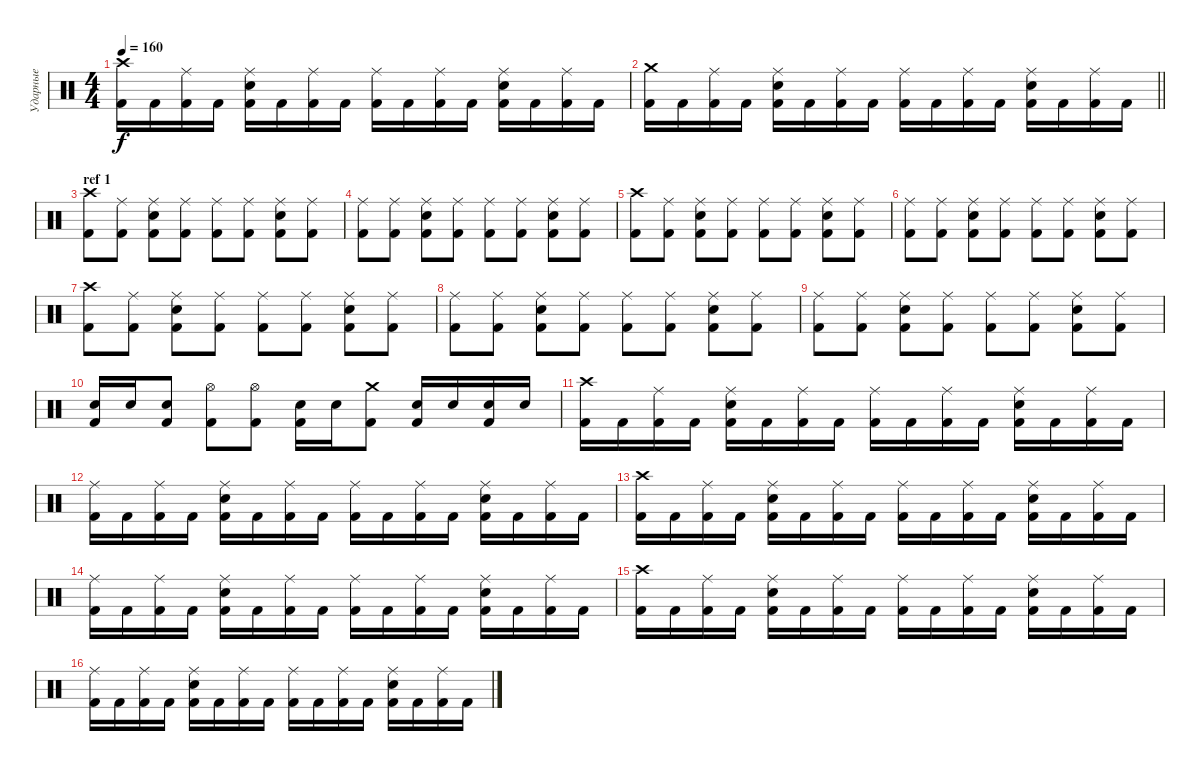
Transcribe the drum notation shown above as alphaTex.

\track ("Ударные" "Ударные") {instrument percussion}
\staff {score}
\articulation defaults
\ts (4 4)
\tempo 160
\clef neutral
\ks c
("Crash high (hit)" "Kick (hit) 2").16{dy f} "Kick (hit) 2".16 ("Ride (middle)" "Kick (hit) 2").16 "Kick (hit) 2".16 ("Ride (middle)" "Electric Snare (hit)" "Kick (hit) 2").16 "Kick (hit) 2".16 ("Ride (middle)" "Kick (hit) 2").16 "Kick (hit) 2".16 ("Ride (middle)" "Kick (hit) 2").16 "Kick (hit) 2".16 ("Ride (middle)" "Kick (hit) 2").16 "Kick (hit) 2".16 ("Ride (middle)" "Electric Snare (hit)" "Kick (hit) 2").16 "Kick (hit) 2".16 ("Ride (middle)" "Kick (hit) 2").16 "Kick (hit) 2".16 |
\barLineRight lightlight
("Crash medium (hit)" "Kick (hit) 2").16 "Kick (hit) 2".16 ("Ride (middle)" "Kick (hit) 2").16 "Kick (hit) 2".16 ("Ride (middle)" "Electric Snare (hit)" "Kick (hit) 2").16 "Kick (hit) 2".16 ("Ride (middle)" "Kick (hit) 2").16 "Kick (hit) 2".16 ("Ride (middle)" "Kick (hit) 2").16 "Kick (hit) 2".16 ("Ride (middle)" "Kick (hit) 2").16 "Kick (hit) 2".16 ("Ride (middle)" "Electric Snare (hit)" "Kick (hit) 2").16 "Kick (hit) 2".16 ("Ride (middle)" "Kick (hit) 2").16 "Kick (hit) 2".16 |
\section ("" "ref 1")
("Crash high (hit)" "Kick (hit) 2").8 ("Ride (middle)" "Kick (hit) 2").8 ("Ride (middle)" "Electric Snare (hit)" "Kick (hit) 2").8 ("Ride (middle)" "Kick (hit) 2").8 ("Ride (middle)" "Kick (hit) 2").8 ("Ride (middle)" "Kick (hit) 2").8 ("Ride (middle)" "Electric Snare (hit)" "Kick (hit) 2").8 ("Ride (middle)" "Kick (hit) 2").8 |
("Ride (middle)" "Kick (hit) 2").8 ("Ride (middle)" "Kick (hit) 2").8 ("Ride (middle)" "Electric Snare (hit)" "Kick (hit) 2").8 ("Ride (middle)" "Kick (hit) 2").8 ("Ride (middle)" "Kick (hit) 2").8 ("Ride (middle)" "Kick (hit) 2").8 ("Ride (middle)" "Electric Snare (hit)" "Kick (hit) 2").8 ("Ride (middle)" "Kick (hit) 2").8 |
("Crash high (hit)" "Kick (hit) 2").8 ("Ride (middle)" "Kick (hit) 2").8 ("Ride (middle)" "Electric Snare (hit)" "Kick (hit) 2").8 ("Ride (middle)" "Kick (hit) 2").8 ("Ride (middle)" "Kick (hit) 2").8 ("Ride (middle)" "Kick (hit) 2").8 ("Ride (middle)" "Electric Snare (hit)" "Kick (hit) 2").8 ("Ride (middle)" "Kick (hit) 2").8 |
("Ride (middle)" "Kick (hit) 2").8 ("Ride (middle)" "Kick (hit) 2").8 ("Ride (middle)" "Electric Snare (hit)" "Kick (hit) 2").8 ("Ride (middle)" "Kick (hit) 2").8 ("Ride (middle)" "Kick (hit) 2").8 ("Ride (middle)" "Kick (hit) 2").8 ("Ride (middle)" "Electric Snare (hit)" "Kick (hit) 2").8 ("Ride (middle)" "Kick (hit) 2").8 |
("Crash high (hit)" "Kick (hit) 2").8 ("Ride (middle)" "Kick (hit) 2").8 ("Ride (middle)" "Electric Snare (hit)" "Kick (hit) 2").8 ("Ride (middle)" "Kick (hit) 2").8 ("Ride (middle)" "Kick (hit) 2").8 ("Ride (middle)" "Kick (hit) 2").8 ("Ride (middle)" "Electric Snare (hit)" "Kick (hit) 2").8 ("Ride (middle)" "Kick (hit) 2").8 |
("Ride (middle)" "Kick (hit) 2").8 ("Ride (middle)" "Kick (hit) 2").8 ("Ride (middle)" "Electric Snare (hit)" "Kick (hit) 2").8 ("Ride (middle)" "Kick (hit) 2").8 ("Ride (middle)" "Kick (hit) 2").8 ("Ride (middle)" "Kick (hit) 2").8 ("Ride (middle)" "Electric Snare (hit)" "Kick (hit) 2").8 ("Ride (middle)" "Kick (hit) 2").8 |
("Ride (middle)" "Kick (hit) 2").8 ("Ride (middle)" "Kick (hit) 2").8 ("Ride (middle)" "Electric Snare (hit)" "Kick (hit) 2").8 ("Ride (middle)" "Kick (hit) 2").8 ("Ride (middle)" "Kick (hit) 2").8 ("Ride (middle)" "Kick (hit) 2").8 ("Ride (middle)" "Electric Snare (hit)" "Kick (hit) 2").8 ("Ride (middle)" "Kick (hit) 2").8 |
("Electric Snare (hit)" "Kick (hit) 2").16 "Electric Snare (hit)".16 ("Electric Snare (hit)" "Kick (hit) 2").8 ("Hi-Hat (open)" "Kick (hit) 2").8 ("Hi-Hat (open)" "Kick (hit) 2").8 ("Electric Snare (hit)" "Kick (hit) 2").16 "Electric Snare (hit)".16 ("Crash medium (hit)" "Kick (hit) 2").8 ("Electric Snare (hit)" "Kick (hit) 2").16 "Electric Snare (hit)".16 ("Electric Snare (hit)" "Kick (hit) 2").16 "Electric Snare (hit)".16 |
("Crash high (hit)" "Kick (hit) 2").16 "Kick (hit) 2".16 ("Ride (middle)" "Kick (hit) 2").16 "Kick (hit) 2".16 ("Ride (middle)" "Electric Snare (hit)" "Kick (hit) 2").16 "Kick (hit) 2".16 ("Ride (middle)" "Kick (hit) 2").16 "Kick (hit) 2".16 ("Ride (middle)" "Kick (hit) 2").16 "Kick (hit) 2".16 ("Ride (middle)" "Kick (hit) 2").16 "Kick (hit) 2".16 ("Ride (middle)" "Electric Snare (hit)" "Kick (hit) 2").16 "Kick (hit) 2".16 ("Ride (middle)" "Kick (hit) 2").16 "Kick (hit) 2".16 |
("Ride (middle)" "Kick (hit) 2").16 "Kick (hit) 2".16 ("Ride (middle)" "Kick (hit) 2").16 "Kick (hit) 2".16 ("Ride (middle)" "Electric Snare (hit)" "Kick (hit) 2").16 "Kick (hit) 2".16 ("Ride (middle)" "Kick (hit) 2").16 "Kick (hit) 2".16 ("Ride (middle)" "Kick (hit) 2").16 "Kick (hit) 2".16 ("Ride (middle)" "Kick (hit) 2").16 "Kick (hit) 2".16 ("Ride (middle)" "Electric Snare (hit)" "Kick (hit) 2").16 "Kick (hit) 2".16 ("Ride (middle)" "Kick (hit) 2").16 "Kick (hit) 2".16 |
("Crash high (hit)" "Kick (hit) 2").16 "Kick (hit) 2".16 ("Ride (middle)" "Kick (hit) 2").16 "Kick (hit) 2".16 ("Ride (middle)" "Electric Snare (hit)" "Kick (hit) 2").16 "Kick (hit) 2".16 ("Ride (middle)" "Kick (hit) 2").16 "Kick (hit) 2".16 ("Ride (middle)" "Kick (hit) 2").16 "Kick (hit) 2".16 ("Ride (middle)" "Kick (hit) 2").16 "Kick (hit) 2".16 ("Ride (middle)" "Electric Snare (hit)" "Kick (hit) 2").16 "Kick (hit) 2".16 ("Ride (middle)" "Kick (hit) 2").16 "Kick (hit) 2".16 |
("Ride (middle)" "Kick (hit) 2").16 "Kick (hit) 2".16 ("Ride (middle)" "Kick (hit) 2").16 "Kick (hit) 2".16 ("Ride (middle)" "Electric Snare (hit)" "Kick (hit) 2").16 "Kick (hit) 2".16 ("Ride (middle)" "Kick (hit) 2").16 "Kick (hit) 2".16 ("Ride (middle)" "Kick (hit) 2").16 "Kick (hit) 2".16 ("Ride (middle)" "Kick (hit) 2").16 "Kick (hit) 2".16 ("Ride (middle)" "Electric Snare (hit)" "Kick (hit) 2").16 "Kick (hit) 2".16 ("Ride (middle)" "Kick (hit) 2").16 "Kick (hit) 2".16 |
("Crash high (hit)" "Kick (hit) 2").16 "Kick (hit) 2".16 ("Ride (middle)" "Kick (hit) 2").16 "Kick (hit) 2".16 ("Ride (middle)" "Electric Snare (hit)" "Kick (hit) 2").16 "Kick (hit) 2".16 ("Ride (middle)" "Kick (hit) 2").16 "Kick (hit) 2".16 ("Ride (middle)" "Kick (hit) 2").16 "Kick (hit) 2".16 ("Ride (middle)" "Kick (hit) 2").16 "Kick (hit) 2".16 ("Ride (middle)" "Electric Snare (hit)" "Kick (hit) 2").16 "Kick (hit) 2".16 ("Ride (middle)" "Kick (hit) 2").16 "Kick (hit) 2".16 |
("Ride (middle)" "Kick (hit) 2").16 "Kick (hit) 2".16 ("Ride (middle)" "Kick (hit) 2").16 "Kick (hit) 2".16 ("Ride (middle)" "Electric Snare (hit)" "Kick (hit) 2").16 "Kick (hit) 2".16 ("Ride (middle)" "Kick (hit) 2").16 "Kick (hit) 2".16 ("Ride (middle)" "Kick (hit) 2").16 "Kick (hit) 2".16 ("Ride (middle)" "Kick (hit) 2").16 "Kick (hit) 2".16 ("Ride (middle)" "Electric Snare (hit)" "Kick (hit) 2").16 "Kick (hit) 2".16 ("Ride (middle)" "Kick (hit) 2").16 "Kick (hit) 2".16
